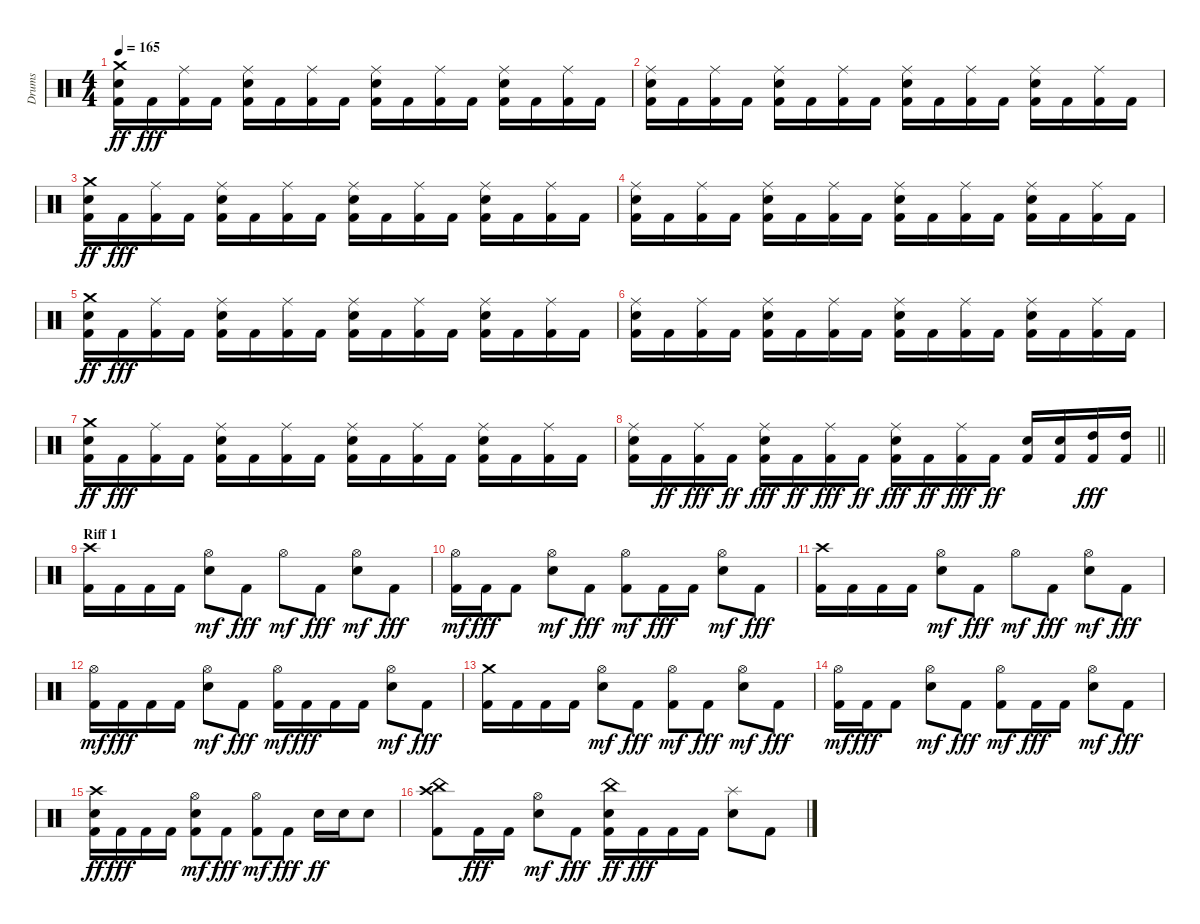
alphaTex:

\track ("Drums" "Drums") {instrument percussion}
\staff {score}
\articulation defaults
\ts (4 4)
\tempo 165
\clef neutral
\ks c
("Kick (hit) 2" "Snare (hit) 2" "Crash medium (hit)").16{dy ff} "Kick (hit) 2".16{dy fff} ("Kick (hit) 2" "Ride (middle)").16 "Kick (hit) 2".16 ("Kick (hit) 2" "Snare (hit) 2" "Ride (middle)").16 "Kick (hit) 2".16 ("Kick (hit) 2" "Ride (middle)").16 "Kick (hit) 2".16 ("Kick (hit) 2" "Snare (hit) 2" "Ride (middle)").16 "Kick (hit) 2".16 ("Kick (hit) 2" "Ride (middle)").16 "Kick (hit) 2".16 ("Kick (hit) 2" "Snare (hit) 2" "Ride (middle)").16 "Kick (hit) 2".16 ("Kick (hit) 2" "Ride (middle)").16 "Kick (hit) 2".16 |
("Kick (hit) 2" "Snare (hit) 2" "Ride (middle)").16 "Kick (hit) 2".16 ("Kick (hit) 2" "Ride (middle)").16 "Kick (hit) 2".16 ("Kick (hit) 2" "Snare (hit) 2" "Ride (middle)").16 "Kick (hit) 2".16 ("Kick (hit) 2" "Ride (middle)").16 "Kick (hit) 2".16 ("Kick (hit) 2" "Snare (hit) 2" "Ride (middle)").16 "Kick (hit) 2".16 ("Kick (hit) 2" "Ride (middle)").16 "Kick (hit) 2".16 ("Kick (hit) 2" "Snare (hit) 2" "Ride (middle)").16 "Kick (hit) 2".16 ("Kick (hit) 2" "Ride (middle)").16 "Kick (hit) 2".16 |
("Kick (hit) 2" "Snare (hit) 2" "Crash medium (hit)").16{dy ff} "Kick (hit) 2".16{dy fff} ("Kick (hit) 2" "Ride (middle)").16 "Kick (hit) 2".16 ("Kick (hit) 2" "Snare (hit) 2" "Ride (middle)").16 "Kick (hit) 2".16 ("Kick (hit) 2" "Ride (middle)").16 "Kick (hit) 2".16 ("Kick (hit) 2" "Snare (hit) 2" "Ride (middle)").16 "Kick (hit) 2".16 ("Kick (hit) 2" "Ride (middle)").16 "Kick (hit) 2".16 ("Kick (hit) 2" "Snare (hit) 2" "Ride (middle)").16 "Kick (hit) 2".16 ("Kick (hit) 2" "Ride (middle)").16 "Kick (hit) 2".16 |
("Kick (hit) 2" "Snare (hit) 2" "Ride (middle)").16 "Kick (hit) 2".16 ("Kick (hit) 2" "Ride (middle)").16 "Kick (hit) 2".16 ("Kick (hit) 2" "Snare (hit) 2" "Ride (middle)").16 "Kick (hit) 2".16 ("Kick (hit) 2" "Ride (middle)").16 "Kick (hit) 2".16 ("Kick (hit) 2" "Snare (hit) 2" "Ride (middle)").16 "Kick (hit) 2".16 ("Kick (hit) 2" "Ride (middle)").16 "Kick (hit) 2".16 ("Kick (hit) 2" "Snare (hit) 2" "Ride (middle)").16 "Kick (hit) 2".16 ("Kick (hit) 2" "Ride (middle)").16 "Kick (hit) 2".16 |
("Kick (hit) 2" "Snare (hit) 2" "Crash medium (hit)").16{dy ff} "Kick (hit) 2".16{dy fff} ("Kick (hit) 2" "Ride (middle)").16 "Kick (hit) 2".16 ("Kick (hit) 2" "Snare (hit) 2" "Ride (middle)").16 "Kick (hit) 2".16 ("Kick (hit) 2" "Ride (middle)").16 "Kick (hit) 2".16 ("Kick (hit) 2" "Snare (hit) 2" "Ride (middle)").16 "Kick (hit) 2".16 ("Kick (hit) 2" "Ride (middle)").16 "Kick (hit) 2".16 ("Kick (hit) 2" "Snare (hit) 2" "Ride (middle)").16 "Kick (hit) 2".16 ("Kick (hit) 2" "Ride (middle)").16 "Kick (hit) 2".16 |
("Kick (hit) 2" "Snare (hit) 2" "Ride (middle)").16 "Kick (hit) 2".16 ("Kick (hit) 2" "Ride (middle)").16 "Kick (hit) 2".16 ("Kick (hit) 2" "Snare (hit) 2" "Ride (middle)").16 "Kick (hit) 2".16 ("Kick (hit) 2" "Ride (middle)").16 "Kick (hit) 2".16 ("Kick (hit) 2" "Snare (hit) 2" "Ride (middle)").16 "Kick (hit) 2".16 ("Kick (hit) 2" "Ride (middle)").16 "Kick (hit) 2".16 ("Kick (hit) 2" "Snare (hit) 2" "Ride (middle)").16 "Kick (hit) 2".16 ("Kick (hit) 2" "Ride (middle)").16 "Kick (hit) 2".16 |
("Kick (hit) 2" "Snare (hit) 2" "Crash medium (hit)").16{dy ff} "Kick (hit) 2".16{dy fff} ("Kick (hit) 2" "Ride (middle)").16 "Kick (hit) 2".16 ("Kick (hit) 2" "Snare (hit) 2" "Ride (middle)").16 "Kick (hit) 2".16 ("Kick (hit) 2" "Ride (middle)").16 "Kick (hit) 2".16 ("Kick (hit) 2" "Snare (hit) 2" "Ride (middle)").16 "Kick (hit) 2".16 ("Kick (hit) 2" "Ride (middle)").16 "Kick (hit) 2".16 ("Kick (hit) 2" "Snare (hit) 2" "Ride (middle)").16 "Kick (hit) 2".16 ("Kick (hit) 2" "Ride (middle)").16 "Kick (hit) 2".16 |
\barLineRight lightlight
("Kick (hit) 2" "Snare (hit) 2" "Ride (middle)").16 "Kick (hit) 2".16{dy ff} ("Kick (hit) 2" "Ride (middle)").16{dy fff} "Kick (hit) 2".16{dy ff} ("Kick (hit) 2" "Snare (hit) 2" "Ride (middle)").16{dy fff} "Kick (hit) 2".16{dy ff} ("Kick (hit) 2" "Ride (middle)").16{dy fff} "Kick (hit) 2".16{dy ff} ("Kick (hit) 2" "Snare (hit) 2" "Ride (middle)").16{dy fff} "Kick (hit) 2".16{dy ff} ("Kick (hit) 2" "Ride (middle)").16{dy fff} "Kick (hit) 2".16{dy ff} ("Kick (hit) 2" "Snare (hit) 2").16 ("Kick (hit) 2" "Snare (hit) 2").16 ("Kick (hit) 2" "High Tom (hit)").16{dy fff} ("Kick (hit) 2" "High Tom (hit)").16 |
\section ("" "Riff 1")
("Kick (hit) 2" "Crash high (hit)").16 "Kick (hit) 2".16 "Kick (hit) 2".16 "Kick (hit) 2".16 ("Snare (hit) 2" "Hi-Hat (open)").8{dy mf} "Kick (hit) 2".8{dy fff} "Hi-Hat (open)".8{dy mf} "Kick (hit) 2".8{dy fff} ("Snare (hit) 2" "Hi-Hat (open)").8{dy mf} "Kick (hit) 2".8{dy fff} |
("Kick (hit) 2" "Hi-Hat (open)").16{dy mf} "Kick (hit) 2".16{dy fff} "Kick (hit) 2".8 ("Snare (hit) 2" "Hi-Hat (open)").8{dy mf} "Kick (hit) 2".8{dy fff} ("Kick (hit) 2" "Hi-Hat (open)").8{dy mf} "Kick (hit) 2".16{dy fff} "Kick (hit) 2".16 ("Snare (hit) 2" "Hi-Hat (open)").8{dy mf} "Kick (hit) 2".8{dy fff} |
("Kick (hit) 2" "Crash high (hit)").16 "Kick (hit) 2".16 "Kick (hit) 2".16 "Kick (hit) 2".16 ("Snare (hit) 2" "Hi-Hat (open)").8{dy mf} "Kick (hit) 2".8{dy fff} "Hi-Hat (open)".8{dy mf} "Kick (hit) 2".8{dy fff} ("Snare (hit) 2" "Hi-Hat (open)").8{dy mf} "Kick (hit) 2".8{dy fff} |
("Kick (hit) 2" "Hi-Hat (open)").16{dy mf} "Kick (hit) 2".16{dy fff} "Kick (hit) 2".16 "Kick (hit) 2".16 ("Snare (hit) 2" "Hi-Hat (open)").8{dy mf} "Kick (hit) 2".8{dy fff} ("Kick (hit) 2" "Hi-Hat (open)").16{dy mf} "Kick (hit) 2".16{dy fff} "Kick (hit) 2".16 "Kick (hit) 2".16 ("Snare (hit) 2" "Hi-Hat (open)").8{dy mf} "Kick (hit) 2".8{dy fff} |
("Kick (hit) 2" "Crash medium (hit)").16 "Kick (hit) 2".16 "Kick (hit) 2".16 "Kick (hit) 2".16 ("Snare (hit) 2" "Hi-Hat (open)").8{dy mf} "Kick (hit) 2".8{dy fff} ("Kick (hit) 2" "Hi-Hat (open)").8{dy mf} "Kick (hit) 2".8{dy fff} ("Snare (hit) 2" "Hi-Hat (open)").8{dy mf} "Kick (hit) 2".8{dy fff} |
("Kick (hit) 2" "Hi-Hat (open)").16{dy mf} "Kick (hit) 2".16{dy fff} "Kick (hit) 2".8 ("Snare (hit) 2" "Hi-Hat (open)").8{dy mf} "Kick (hit) 2".8{dy fff} ("Kick (hit) 2" "Hi-Hat (open)").8{dy mf} "Kick (hit) 2".16{dy fff} "Kick (hit) 2".16 ("Snare (hit) 2" "Hi-Hat (open)").8{dy mf} "Kick (hit) 2".8{dy fff} |
("Kick (hit) 2" "Snare (hit) 2" "Crash high (hit)").16{dy ff} "Kick (hit) 2".16{dy fff} "Kick (hit) 2".16 "Kick (hit) 2".16 ("Kick (hit) 2" "Snare (hit) 2" "Hi-Hat (open)").8{dy mf} "Kick (hit) 2".8{dy fff} ("Kick (hit) 2" "Hi-Hat (open)").8{dy mf} "Kick (hit) 2".8{dy fff} "Snare (hit) 2".16{dy ff} "Snare (hit) 2".16 "Snare (hit) 2".8 |
("Kick (hit) 2" "Crash high (hit)" "China (hit)").8 "Kick (hit) 2".16{dy fff} "Kick (hit) 2".16 ("Snare (hit) 2" "Hi-Hat (open)").8{dy mf} "Kick (hit) 2".8{dy fff} ("Kick (hit) 2" "Snare (hit) 2" "China (hit)").16{dy ff} "Kick (hit) 2".16{dy fff} "Kick (hit) 2".16 "Kick (hit) 2".16 ("Snare (hit) 2" "Splash (hit)").8 "Kick (hit) 2".8
